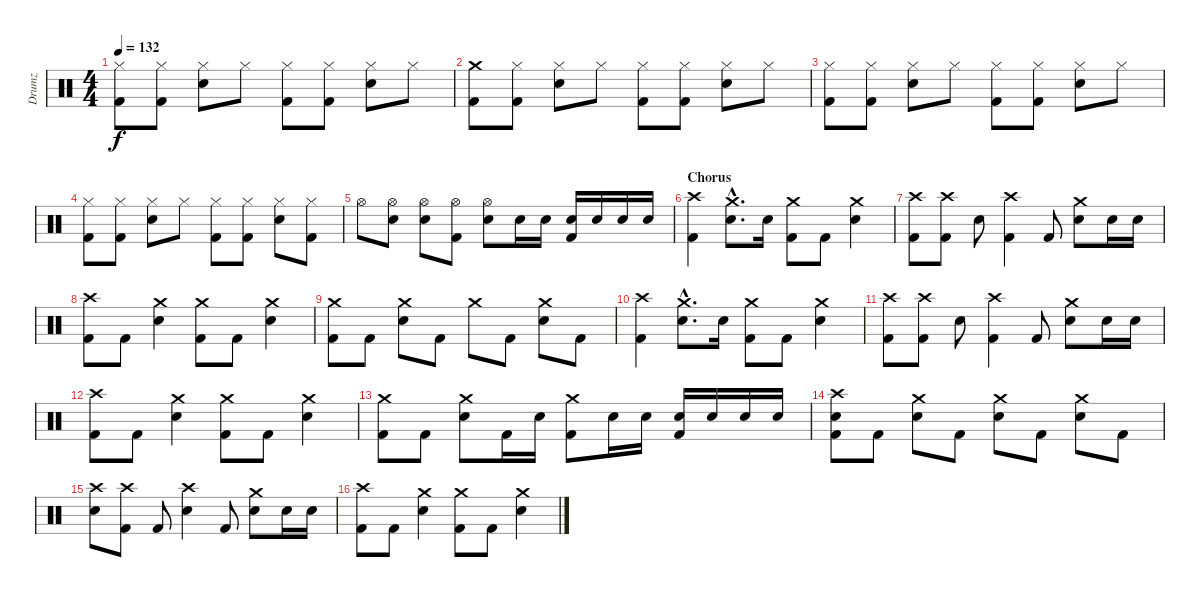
\track ("Drumz" "Drumz") {instrument percussion}
\staff {score}
\articulation defaults
\ts (4 4)
\tempo 132
\clef neutral
\ks c
("Hi-Hat (closed)" "Kick (hit) 2").8{dy f} ("Hi-Hat (closed)" "Kick (hit) 2").8 ("Hi-Hat (closed)" "Snare (hit) 2").8 "Hi-Hat (closed)".8 ("Hi-Hat (closed)" "Kick (hit) 2").8 ("Hi-Hat (closed)" "Kick (hit) 2").8 ("Hi-Hat (closed)" "Snare (hit) 2").8 "Hi-Hat (closed)".8 |
("Crash medium (hit)" "Kick (hit) 2").8 ("Hi-Hat (closed)" "Kick (hit) 2").8 ("Hi-Hat (closed)" "Snare (hit) 2").8 "Hi-Hat (closed)".8 ("Hi-Hat (closed)" "Kick (hit) 2").8 ("Hi-Hat (closed)" "Kick (hit) 2").8 ("Hi-Hat (closed)" "Snare (hit) 2").8 "Hi-Hat (closed)".8 |
("Hi-Hat (closed)" "Kick (hit) 2").8 ("Hi-Hat (closed)" "Kick (hit) 2").8 ("Hi-Hat (closed)" "Snare (hit) 2").8 "Hi-Hat (closed)".8 ("Hi-Hat (closed)" "Kick (hit) 2").8 ("Hi-Hat (closed)" "Kick (hit) 2").8 ("Hi-Hat (closed)" "Snare (hit) 2").8 "Hi-Hat (closed)".8 |
("Hi-Hat (closed)" "Kick (hit) 2").8 ("Hi-Hat (closed)" "Kick (hit) 2").8 ("Hi-Hat (closed)" "Snare (hit) 2").8 "Hi-Hat (closed)".8 ("Hi-Hat (closed)" "Kick (hit) 2").8 ("Hi-Hat (closed)" "Kick (hit) 2").8 ("Hi-Hat (closed)" "Snare (hit) 2").8 ("Hi-Hat (closed)" "Kick (hit) 2").8 |
"Hi-Hat (open)".8 ("Hi-Hat (open)" "Snare (hit) 2").8 ("Hi-Hat (open)" "Snare (hit) 2").8 ("Hi-Hat (open)" "Kick (hit) 2").8 ("Hi-Hat (open)" "Snare (hit) 2").8 "Snare (hit) 2".16 "Snare (hit) 2".16 ("Snare (hit) 2" "Kick (hit) 2").16 "Snare (hit) 2".16 "Snare (hit) 2".16 "Snare (hit) 2".16 |
\section ("" "Chorus")
("Crash high (hit)" "Kick (hit) 2").4 ("Crash medium (hit)"{hac} "Snare (hit) 2"{hac}).8{d} "Snare (hit) 2".16 ("Crash medium (hit)" "Kick (hit) 2").8 "Kick (hit) 2".8 ("Crash medium (hit)" "Snare (hit) 2").4 |
("Crash high (hit)" "Kick (hit) 2").8 ("Crash high (hit)" "Kick (hit) 2").8 "Snare (hit) 2".8 ("Crash high (hit)" "Kick (hit) 2").4 "Kick (hit) 2".8 ("Crash medium (hit)" "Snare (hit) 2").8 "Snare (hit) 2".16 "Snare (hit) 2".16 |
("Crash high (hit)" "Kick (hit) 2").8 "Kick (hit) 2".8 ("Crash medium (hit)" "Snare (hit) 2").4 ("Crash medium (hit)" "Kick (hit) 2").8 "Kick (hit) 2".8 ("Crash medium (hit)" "Snare (hit) 2").4 |
("Crash medium (hit)" "Kick (hit) 2").8 "Kick (hit) 2".8 ("Crash medium (hit)" "Snare (hit) 2").8 "Kick (hit) 2".8 "Crash medium (hit)".8 "Kick (hit) 2".8 ("Crash medium (hit)" "Snare (hit) 2").8 "Kick (hit) 2".8 |
("Crash high (hit)" "Kick (hit) 2").4 ("Crash medium (hit)"{hac} "Snare (hit) 2"{hac}).8{d} "Snare (hit) 2".16 ("Crash medium (hit)" "Kick (hit) 2").8 "Kick (hit) 2".8 ("Crash medium (hit)" "Snare (hit) 2").4 |
("Crash high (hit)" "Kick (hit) 2").8 ("Crash high (hit)" "Kick (hit) 2").8 "Snare (hit) 2".8 ("Crash high (hit)" "Kick (hit) 2").4 "Kick (hit) 2".8 ("Crash medium (hit)" "Snare (hit) 2").8 "Snare (hit) 2".16 "Snare (hit) 2".16 |
("Crash high (hit)" "Kick (hit) 2").8 "Kick (hit) 2".8 ("Crash medium (hit)" "Snare (hit) 2").4 ("Crash medium (hit)" "Kick (hit) 2").8 "Kick (hit) 2".8 ("Crash medium (hit)" "Snare (hit) 2").4 |
("Crash medium (hit)" "Kick (hit) 2").8 "Kick (hit) 2".8 ("Crash medium (hit)" "Snare (hit) 2").8 "Kick (hit) 2".16 "Snare (hit) 2".16 ("Crash medium (hit)" "Kick (hit) 2").8 "Snare (hit) 2".16 "Snare (hit) 2".16 ("Snare (hit) 2" "Kick (hit) 2").16 "Snare (hit) 2".16 "Snare (hit) 2".16 "Snare (hit) 2".16 |
("Crash high (hit)" "Snare (hit) 2" "Kick (hit) 2").8 "Kick (hit) 2".8 ("Crash medium (hit)" "Snare (hit) 2").8 "Kick (hit) 2".8 ("Crash medium (hit)" "Snare (hit) 2").8 "Kick (hit) 2".8 ("Crash medium (hit)" "Snare (hit) 2").8 "Kick (hit) 2".8 |
("Crash high (hit)" "Snare (hit) 2").8 ("Crash high (hit)" "Kick (hit) 2").8 "Kick (hit) 2".8 ("Crash high (hit)" "Snare (hit) 2").4 "Kick (hit) 2".8 ("Crash medium (hit)" "Snare (hit) 2").8 "Snare (hit) 2".16 "Snare (hit) 2".16 |
("Crash high (hit)" "Kick (hit) 2").8 "Kick (hit) 2".8 ("Crash medium (hit)" "Snare (hit) 2").4 ("Crash medium (hit)" "Kick (hit) 2").8 "Kick (hit) 2".8 ("Crash medium (hit)" "Snare (hit) 2").4
